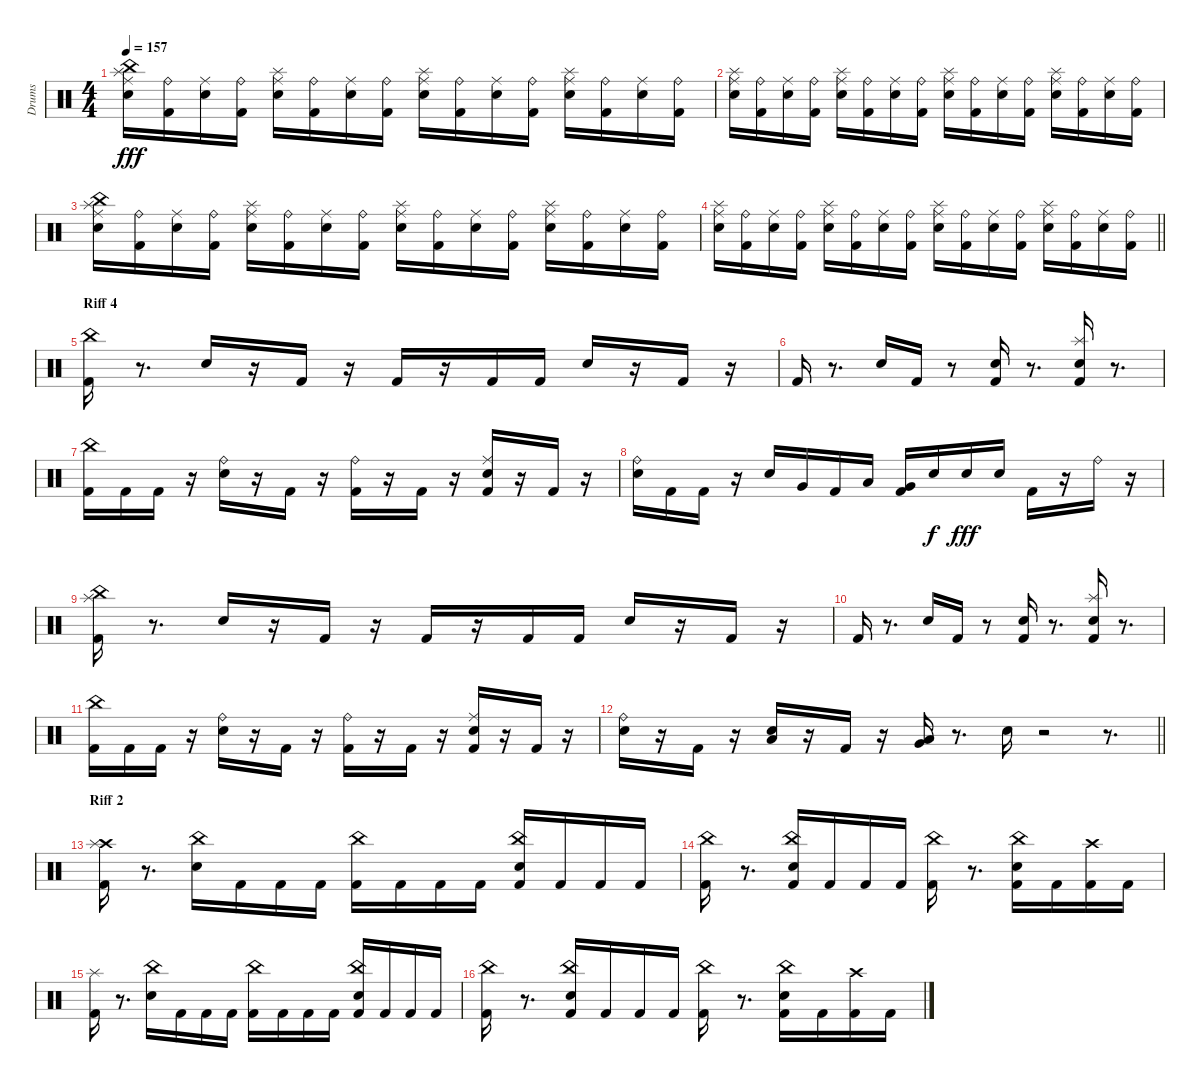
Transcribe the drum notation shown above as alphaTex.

\track ("Drums" "Drums") {instrument percussion}
\staff {score}
\articulation defaults
\ts (4 4)
\tempo 157
\clef neutral
\ks c
("Snare (hit) 2" "Ride (middle)" "China (hit)" "Splash (hit)").16{dy fff} ("Kick (hit) 2" "Ride (bell)").16 ("Snare (hit) 2" "Ride (middle)").16 ("Kick (hit) 2" "Ride (bell)").16 ("Snare (hit) 2" "Ride (middle)" "Splash (hit)").16 ("Kick (hit) 2" "Ride (bell)").16 ("Snare (hit) 2" "Ride (middle)").16 ("Kick (hit) 2" "Ride (bell)").16 ("Snare (hit) 2" "Ride (middle)" "Splash (hit)").16 ("Kick (hit) 2" "Ride (bell)").16 ("Snare (hit) 2" "Ride (middle)").16 ("Kick (hit) 2" "Ride (bell)").16 ("Snare (hit) 2" "Ride (middle)" "Splash (hit)").16 ("Kick (hit) 2" "Ride (bell)").16 ("Snare (hit) 2" "Ride (middle)").16 ("Kick (hit) 2" "Ride (bell)").16 |
("Snare (hit) 2" "Ride (middle)" "Splash (hit)").16 ("Kick (hit) 2" "Ride (bell)").16 ("Snare (hit) 2" "Ride (middle)").16 ("Kick (hit) 2" "Ride (bell)").16 ("Snare (hit) 2" "Ride (middle)" "Splash (hit)").16 ("Kick (hit) 2" "Ride (bell)").16 ("Snare (hit) 2" "Ride (middle)").16 ("Kick (hit) 2" "Ride (bell)").16 ("Snare (hit) 2" "Ride (middle)" "Splash (hit)").16 ("Kick (hit) 2" "Ride (bell)").16 ("Snare (hit) 2" "Ride (middle)").16 ("Kick (hit) 2" "Ride (bell)").16 ("Snare (hit) 2" "Ride (middle)" "Splash (hit)").16 ("Kick (hit) 2" "Ride (bell)").16 ("Snare (hit) 2" "Ride (middle)").16 ("Kick (hit) 2" "Ride (bell)").16 |
("Snare (hit) 2" "Ride (middle)" "China (hit)" "Splash (hit)").16 ("Kick (hit) 2" "Ride (bell)").16 ("Snare (hit) 2" "Ride (middle)").16 ("Kick (hit) 2" "Ride (bell)").16 ("Snare (hit) 2" "Ride (middle)" "Splash (hit)").16 ("Kick (hit) 2" "Ride (bell)").16 ("Snare (hit) 2" "Ride (middle)").16 ("Kick (hit) 2" "Ride (bell)").16 ("Snare (hit) 2" "Ride (middle)" "Splash (hit)").16 ("Kick (hit) 2" "Ride (bell)").16 ("Snare (hit) 2" "Ride (middle)").16 ("Kick (hit) 2" "Ride (bell)").16 ("Snare (hit) 2" "Ride (middle)" "Splash (hit)").16 ("Kick (hit) 2" "Ride (bell)").16 ("Snare (hit) 2" "Ride (middle)").16 ("Kick (hit) 2" "Ride (bell)").16 |
\barLineRight lightlight
("Snare (hit) 2" "Ride (middle)" "Splash (hit)").16 ("Kick (hit) 2" "Ride (bell)").16 ("Snare (hit) 2" "Ride (middle)").16 ("Kick (hit) 2" "Ride (bell)").16 ("Snare (hit) 2" "Ride (middle)" "Splash (hit)").16 ("Kick (hit) 2" "Ride (bell)").16 ("Snare (hit) 2" "Ride (middle)").16 ("Kick (hit) 2" "Ride (bell)").16 ("Snare (hit) 2" "Ride (middle)" "Splash (hit)").16 ("Kick (hit) 2" "Ride (bell)").16 ("Snare (hit) 2" "Ride (middle)").16 ("Kick (hit) 2" "Ride (bell)").16 ("Snare (hit) 2" "Ride (middle)" "Splash (hit)").16 ("Kick (hit) 2" "Ride (bell)").16 ("Snare (hit) 2" "Ride (middle)").16 ("Kick (hit) 2" "Ride (bell)").16 |
\section ("" "Riff 4")
("Kick (hit) 2" "China (hit)").16 r.8{d} "Snare (hit) 2".16 r.16 "Kick (hit) 2".16 r.16 "Kick (hit) 2".16 r.16 "Kick (hit) 2".16 "Kick (hit) 2".16 "Snare (hit) 2".16 r.16 "Kick (hit) 2".16 r.16 |
"Kick (hit) 2".16 r.8{d} "Snare (hit) 2".16 "Kick (hit) 2".16 r.8 ("Kick (hit) 2" "Snare (hit) 2").16 r.8{d} ("Kick (hit) 2" "Snare (hit) 2" "Splash (hit)").16 r.8{d} |
("Kick (hit) 2" "China (hit)").16 "Kick (hit) 2".16 "Kick (hit) 2".16 r.16 ("Snare (hit) 2" "Ride (bell)").16 r.16 "Kick (hit) 2".16 r.16 ("Kick (hit) 2" "Ride (bell)").16 r.16 "Kick (hit) 2".16 r.16 ("Kick (hit) 2" "Snare (hit) 2" "Ride (middle)").16 r.16 "Kick (hit) 2".16 r.16 |
("Snare (hit) 2" "Ride (bell)").16 "Kick (hit) 2".16 "Kick (hit) 2".16 r.16 "Snare (hit) 2".16 "Very Low Tom (hit)".16 "Kick (hit) 2".16 "Low Floor Tom (hit)".16 ("Kick (hit) 2" "Very Low Tom (hit)").16 "Snare (hit) 2".16{dy f} "Snare (hit) 2".16{dy fff} "Snare (hit) 2".16 "Kick (hit) 2".16 r.16 "Ride (bell)".16 r.16 |
("Kick (hit) 2" "China (hit)" "Splash (hit)").16 r.8{d} "Snare (hit) 2".16 r.16 "Kick (hit) 2".16 r.16 "Kick (hit) 2".16 r.16 "Kick (hit) 2".16 "Kick (hit) 2".16 "Snare (hit) 2".16 r.16 "Kick (hit) 2".16 r.16 |
"Kick (hit) 2".16 r.8{d} "Snare (hit) 2".16 "Kick (hit) 2".16 r.8 ("Kick (hit) 2" "Snare (hit) 2").16 r.8{d} ("Kick (hit) 2" "Snare (hit) 2" "Splash (hit)").16 r.8{d} |
("Kick (hit) 2" "China (hit)").16 "Kick (hit) 2".16 "Kick (hit) 2".16 r.16 ("Snare (hit) 2" "Ride (bell)").16 r.16 "Kick (hit) 2".16 r.16 ("Kick (hit) 2" "Ride (bell)").16 r.16 "Kick (hit) 2".16 r.16 ("Kick (hit) 2" "Snare (hit) 2" "Ride (middle)").16 r.16 "Kick (hit) 2".16 r.16 |
\barLineRight lightlight
("Snare (hit) 2" "Ride (bell)").16 r.16 "Kick (hit) 2".16 r.16 ("Snare (hit) 2" "Low Tom (hit)").16 r.16 "Kick (hit) 2".16 r.16 ("Low Floor Tom (hit)" "Very Low Tom (hit)").16 r.8{d} "Snare (hit) 2".16 r.2 r.8{d} |
\section ("" "Riff 2")
("Kick (hit) 2" "Crash high (hit)" "Splash (hit)").16 r.8{d} ("Snare (hit) 2" "China (hit)").16 "Kick (hit) 2".16 "Kick (hit) 2".16 "Kick (hit) 2".16 ("Kick (hit) 2" "China (hit)").16 "Kick (hit) 2".16 "Kick (hit) 2".16 "Kick (hit) 2".16 ("Kick (hit) 2" "Snare (hit) 2" "China (hit)").16 "Kick (hit) 2".16 "Kick (hit) 2".16 "Kick (hit) 2".16 |
("Kick (hit) 2" "China (hit)").16 r.8{d} ("Kick (hit) 2" "Snare (hit) 2" "China (hit)").16 "Kick (hit) 2".16 "Kick (hit) 2".16 "Kick (hit) 2".16 ("Kick (hit) 2" "China (hit)").16 r.8{d} ("Kick (hit) 2" "Snare (hit) 2" "China (hit)").16 "Kick (hit) 2".16 ("Kick (hit) 2" "Crash high (hit)").16 "Kick (hit) 2".16 |
("Kick (hit) 2" "Splash (hit)").16 r.8{d} ("Snare (hit) 2" "China (hit)").16 "Kick (hit) 2".16 "Kick (hit) 2".16 "Kick (hit) 2".16 ("Kick (hit) 2" "China (hit)").16 "Kick (hit) 2".16 "Kick (hit) 2".16 "Kick (hit) 2".16 ("Kick (hit) 2" "Snare (hit) 2" "China (hit)").16 "Kick (hit) 2".16 "Kick (hit) 2".16 "Kick (hit) 2".16 |
("Kick (hit) 2" "China (hit)").16 r.8{d} ("Kick (hit) 2" "Snare (hit) 2" "China (hit)").16 "Kick (hit) 2".16 "Kick (hit) 2".16 "Kick (hit) 2".16 ("Kick (hit) 2" "China (hit)").16 r.8{d} ("Kick (hit) 2" "Snare (hit) 2" "China (hit)").16 "Kick (hit) 2".16 ("Kick (hit) 2" "Crash high (hit)").16 "Kick (hit) 2".16
